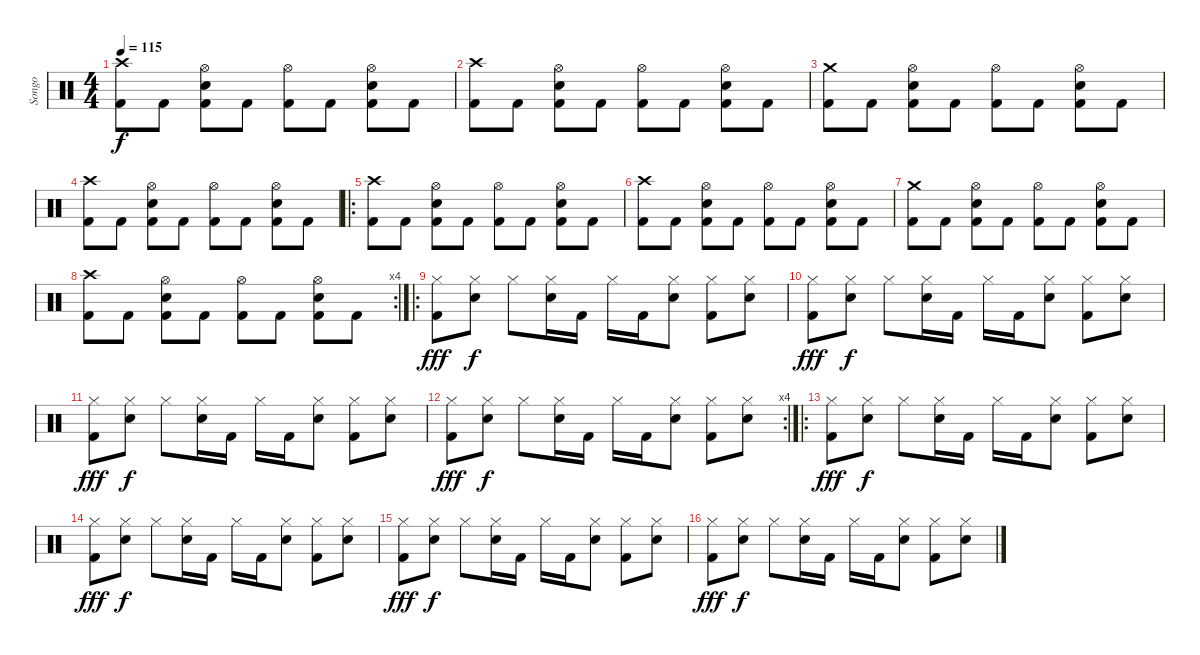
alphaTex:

\track ("Songo" "Songo") {instrument percussion}
\staff {score}
\articulation defaults
\ts (4 4)
\tempo 115
\clef neutral
\ks c
("Crash high (hit)" "Kick (hit) 2").8{dy f} "Kick (hit) 2".8 ("Kick (hit) 2" "Electric Snare (hit)" "Hi-Hat (open)").8 "Kick (hit) 2".8 ("Kick (hit) 2" "Hi-Hat (open)").8 "Kick (hit) 2".8 ("Kick (hit) 2" "Electric Snare (hit)" "Hi-Hat (open)").8 "Kick (hit) 2".8 |
("Crash high (hit)" "Kick (hit) 2").8 "Kick (hit) 2".8 ("Kick (hit) 2" "Electric Snare (hit)" "Hi-Hat (open)").8 "Kick (hit) 2".8 ("Kick (hit) 2" "Hi-Hat (open)").8 "Kick (hit) 2".8 ("Kick (hit) 2" "Electric Snare (hit)" "Hi-Hat (open)").8 "Kick (hit) 2".8 |
("Crash medium (hit)" "Kick (hit) 2").8 "Kick (hit) 2".8 ("Kick (hit) 2" "Electric Snare (hit)" "Hi-Hat (open)").8 "Kick (hit) 2".8 ("Kick (hit) 2" "Hi-Hat (open)").8 "Kick (hit) 2".8 ("Kick (hit) 2" "Electric Snare (hit)" "Hi-Hat (open)").8 "Kick (hit) 2".8 |
("Crash high (hit)" "Kick (hit) 2").8 "Kick (hit) 2".8 ("Kick (hit) 2" "Electric Snare (hit)" "Hi-Hat (open)").8 "Kick (hit) 2".8 ("Kick (hit) 2" "Hi-Hat (open)").8 "Kick (hit) 2".8 ("Kick (hit) 2" "Electric Snare (hit)" "Hi-Hat (open)").8 "Kick (hit) 2".8 |
\ro
("Crash high (hit)" "Kick (hit) 2").8 "Kick (hit) 2".8 ("Kick (hit) 2" "Electric Snare (hit)" "Hi-Hat (open)").8 "Kick (hit) 2".8 ("Kick (hit) 2" "Hi-Hat (open)").8 "Kick (hit) 2".8 ("Kick (hit) 2" "Electric Snare (hit)" "Hi-Hat (open)").8 "Kick (hit) 2".8 |
("Crash high (hit)" "Kick (hit) 2").8 "Kick (hit) 2".8 ("Kick (hit) 2" "Electric Snare (hit)" "Hi-Hat (open)").8 "Kick (hit) 2".8 ("Kick (hit) 2" "Hi-Hat (open)").8 "Kick (hit) 2".8 ("Kick (hit) 2" "Electric Snare (hit)" "Hi-Hat (open)").8 "Kick (hit) 2".8 |
("Crash medium (hit)" "Kick (hit) 2").8 "Kick (hit) 2".8 ("Kick (hit) 2" "Electric Snare (hit)" "Hi-Hat (open)").8 "Kick (hit) 2".8 ("Kick (hit) 2" "Hi-Hat (open)").8 "Kick (hit) 2".8 ("Kick (hit) 2" "Electric Snare (hit)" "Hi-Hat (open)").8 "Kick (hit) 2".8 |
\rc 4
("Crash high (hit)" "Kick (hit) 2").8 "Kick (hit) 2".8 ("Kick (hit) 2" "Electric Snare (hit)" "Hi-Hat (open)").8 "Kick (hit) 2".8 ("Kick (hit) 2" "Hi-Hat (open)").8 "Kick (hit) 2".8 ("Kick (hit) 2" "Electric Snare (hit)" "Hi-Hat (open)").8 "Kick (hit) 2".8 |
\ro
("Hi-Hat (closed)" "Kick (hit) 2").8{dy fff} ("Hi-Hat (closed)" "Electric Snare (hit)").8{dy f} "Hi-Hat (closed)".8 ("Hi-Hat (closed)" "Electric Snare (hit)").16 "Kick (hit) 2".16 "Hi-Hat (closed)".16 "Kick (hit) 2".16 ("Hi-Hat (closed)" "Electric Snare (hit)").8 ("Hi-Hat (closed)" "Kick (hit) 2").8 ("Hi-Hat (closed)" "Electric Snare (hit)").8 |
("Hi-Hat (closed)" "Kick (hit) 2").8{dy fff} ("Hi-Hat (closed)" "Electric Snare (hit)").8{dy f} "Hi-Hat (closed)".8 ("Hi-Hat (closed)" "Electric Snare (hit)").16 "Kick (hit) 2".16 "Hi-Hat (closed)".16 "Kick (hit) 2".16 ("Hi-Hat (closed)" "Electric Snare (hit)").8 ("Hi-Hat (closed)" "Kick (hit) 2").8 ("Hi-Hat (closed)" "Electric Snare (hit)").8 |
("Hi-Hat (closed)" "Kick (hit) 2").8{dy fff} ("Hi-Hat (closed)" "Electric Snare (hit)").8{dy f} "Hi-Hat (closed)".8 ("Hi-Hat (closed)" "Electric Snare (hit)").16 "Kick (hit) 2".16 "Hi-Hat (closed)".16 "Kick (hit) 2".16 ("Hi-Hat (closed)" "Electric Snare (hit)").8 ("Hi-Hat (closed)" "Kick (hit) 2").8 ("Hi-Hat (closed)" "Electric Snare (hit)").8 |
\rc 4
("Hi-Hat (closed)" "Kick (hit) 2").8{dy fff} ("Hi-Hat (closed)" "Electric Snare (hit)").8{dy f} "Hi-Hat (closed)".8 ("Hi-Hat (closed)" "Electric Snare (hit)").16 "Kick (hit) 2".16 "Hi-Hat (closed)".16 "Kick (hit) 2".16 ("Hi-Hat (closed)" "Electric Snare (hit)").8 ("Hi-Hat (closed)" "Kick (hit) 2").8 ("Hi-Hat (closed)" "Electric Snare (hit)").8 |
\ro
("Hi-Hat (closed)" "Kick (hit) 2").8{dy fff} ("Hi-Hat (closed)" "Electric Snare (hit)").8{dy f} "Hi-Hat (closed)".8 ("Hi-Hat (closed)" "Electric Snare (hit)").16 "Kick (hit) 2".16 "Hi-Hat (closed)".16 "Kick (hit) 2".16 ("Hi-Hat (closed)" "Electric Snare (hit)").8 ("Hi-Hat (closed)" "Kick (hit) 2").8 ("Hi-Hat (closed)" "Electric Snare (hit)").8 |
("Hi-Hat (closed)" "Kick (hit) 2").8{dy fff} ("Hi-Hat (closed)" "Electric Snare (hit)").8{dy f} "Hi-Hat (closed)".8 ("Hi-Hat (closed)" "Electric Snare (hit)").16 "Kick (hit) 2".16 "Hi-Hat (closed)".16 "Kick (hit) 2".16 ("Hi-Hat (closed)" "Electric Snare (hit)").8 ("Hi-Hat (closed)" "Kick (hit) 2").8 ("Hi-Hat (closed)" "Electric Snare (hit)").8 |
("Hi-Hat (closed)" "Kick (hit) 2").8{dy fff} ("Hi-Hat (closed)" "Electric Snare (hit)").8{dy f} "Hi-Hat (closed)".8 ("Hi-Hat (closed)" "Electric Snare (hit)").16 "Kick (hit) 2".16 "Hi-Hat (closed)".16 "Kick (hit) 2".16 ("Hi-Hat (closed)" "Electric Snare (hit)").8 ("Hi-Hat (closed)" "Kick (hit) 2").8 ("Hi-Hat (closed)" "Electric Snare (hit)").8 |
("Hi-Hat (closed)" "Kick (hit) 2").8{dy fff} ("Hi-Hat (closed)" "Electric Snare (hit)").8{dy f} "Hi-Hat (closed)".8 ("Hi-Hat (closed)" "Electric Snare (hit)").16 "Kick (hit) 2".16 "Hi-Hat (closed)".16 "Kick (hit) 2".16 ("Hi-Hat (closed)" "Electric Snare (hit)").8 ("Hi-Hat (closed)" "Kick (hit) 2").8 ("Hi-Hat (closed)" "Electric Snare (hit)").8
